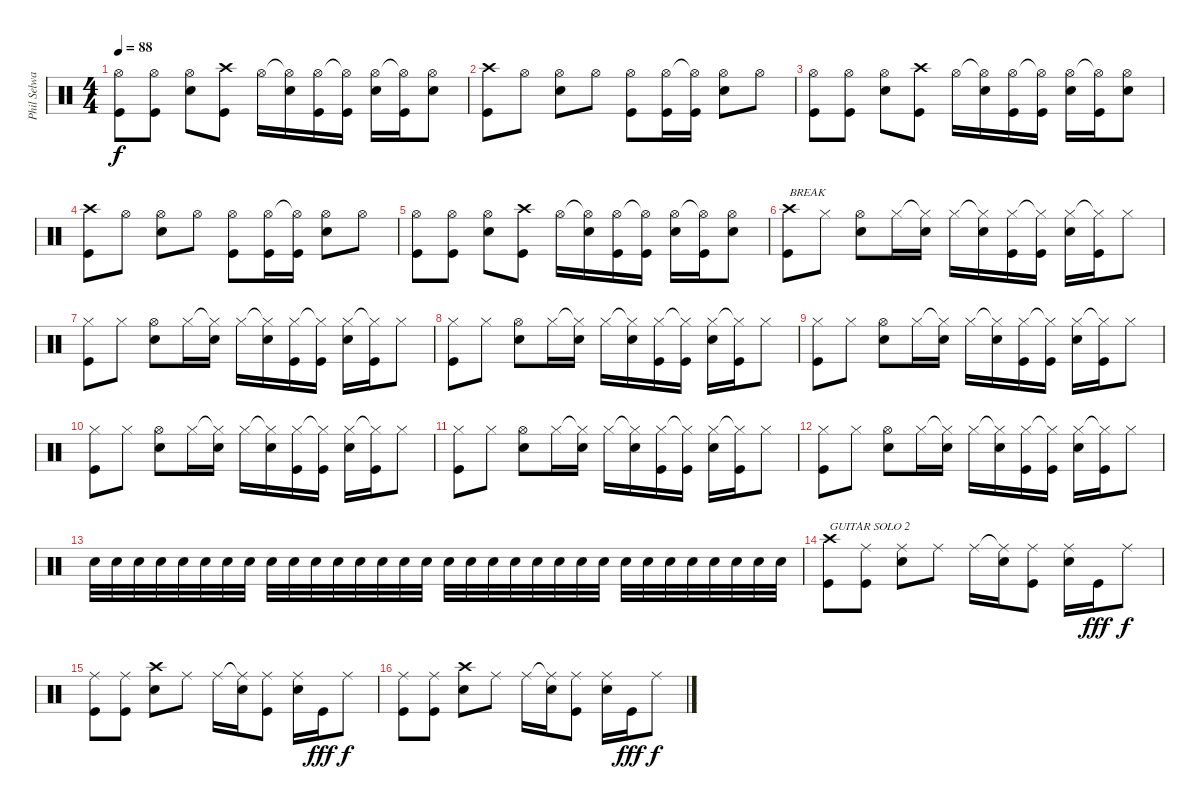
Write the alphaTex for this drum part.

\track ("Phil Selway" "Phil Selwa") {instrument percussion}
\staff {score}
\articulation defaults
\ts (4 4)
\tempo 88
\clef neutral
\ks c
("Hi-Hat (open)" "Kick (hit)").8{dy f} ("Hi-Hat (open)" "Kick (hit)").8 ("Hi-Hat (open)" "Snare (hit) 2").8 ("Crash high (hit)" "Kick (hit)").8 "Hi-Hat (open)".16 ("Hi-Hat (open)"{t} "Snare (hit) 2").16 ("Hi-Hat (open)" "Kick (hit)").16 ("Hi-Hat (open)"{t} "Kick (hit)").16 ("Hi-Hat (open)" "Snare (hit) 2").16 ("Hi-Hat (open)"{t} "Kick (hit)").16 ("Hi-Hat (open)" "Snare (hit) 2").8 |
("Crash high (hit)" "Kick (hit)").8 "Hi-Hat (open)".8 ("Hi-Hat (open)" "Snare (hit) 2").8 "Hi-Hat (open)".8 ("Hi-Hat (open)" "Kick (hit)").8 ("Hi-Hat (open)" "Kick (hit)").16 ("Hi-Hat (open)"{t} "Kick (hit)").16 ("Hi-Hat (open)" "Snare (hit) 2").8 "Hi-Hat (open)".8 |
("Hi-Hat (open)" "Kick (hit)").8 ("Hi-Hat (open)" "Kick (hit)").8 ("Hi-Hat (open)" "Snare (hit) 2").8 ("Crash high (hit)" "Kick (hit)").8 "Hi-Hat (open)".16 ("Hi-Hat (open)"{t} "Snare (hit) 2").16 ("Hi-Hat (open)" "Kick (hit)").16 ("Hi-Hat (open)"{t} "Kick (hit)").16 ("Hi-Hat (open)" "Snare (hit) 2").16 ("Hi-Hat (open)"{t} "Kick (hit)").16 ("Hi-Hat (open)" "Snare (hit) 2").8 |
("Crash high (hit)" "Kick (hit)").8 "Hi-Hat (open)".8 ("Hi-Hat (open)" "Snare (hit) 2").8 "Hi-Hat (open)".8 ("Hi-Hat (open)" "Kick (hit)").8 ("Hi-Hat (open)" "Kick (hit)").16 ("Hi-Hat (open)"{t} "Kick (hit)").16 ("Hi-Hat (open)" "Snare (hit) 2").8 "Hi-Hat (open)".8 |
("Hi-Hat (open)" "Kick (hit)").8 ("Hi-Hat (open)" "Kick (hit)").8 ("Hi-Hat (open)" "Snare (hit) 2").8 ("Crash high (hit)" "Kick (hit)").8 "Hi-Hat (open)".16 ("Hi-Hat (open)"{t} "Snare (hit) 2").16 ("Hi-Hat (open)" "Kick (hit)").16 ("Hi-Hat (open)"{t} "Kick (hit)").16 ("Hi-Hat (open)" "Snare (hit) 2").16 ("Hi-Hat (open)"{t} "Kick (hit)").16 ("Hi-Hat (open)" "Snare (hit) 2").8 |
("Crash high (hit)" "Kick (hit)").8{txt "BREAK"} "Hi-Hat (closed)".8 ("Hi-Hat (open)" "Snare (hit) 2").8 "Hi-Hat (closed)".16 ("Hi-Hat (closed)"{t} "Snare (hit) 2").16 "Hi-Hat (closed)".16 ("Hi-Hat (closed)"{t} "Snare (hit) 2").16 ("Hi-Hat (closed)" "Kick (hit)").16 ("Hi-Hat (closed)"{t} "Kick (hit)").16 ("Hi-Hat (closed)" "Snare (hit) 2").16 ("Hi-Hat (closed)"{t} "Kick (hit)").16 "Hi-Hat (closed)".8 |
("Hi-Hat (closed)" "Kick (hit)").8 "Hi-Hat (closed)".8 ("Hi-Hat (open)" "Snare (hit) 2").8 "Hi-Hat (closed)".16 ("Hi-Hat (closed)"{t} "Snare (hit) 2").16 "Hi-Hat (closed)".16 ("Hi-Hat (closed)"{t} "Snare (hit) 2").16 ("Hi-Hat (closed)" "Kick (hit)").16 ("Hi-Hat (closed)"{t} "Kick (hit)").16 ("Hi-Hat (closed)" "Snare (hit) 2").16 ("Hi-Hat (closed)"{t} "Kick (hit)").16 "Hi-Hat (closed)".8 |
("Hi-Hat (closed)" "Kick (hit)").8 "Hi-Hat (closed)".8 ("Hi-Hat (open)" "Snare (hit) 2").8 "Hi-Hat (closed)".16 ("Hi-Hat (closed)"{t} "Snare (hit) 2").16 "Hi-Hat (closed)".16 ("Hi-Hat (closed)"{t} "Snare (hit) 2").16 ("Hi-Hat (closed)" "Kick (hit)").16 ("Hi-Hat (closed)"{t} "Kick (hit)").16 ("Hi-Hat (closed)" "Snare (hit) 2").16 ("Hi-Hat (closed)"{t} "Kick (hit)").16 "Hi-Hat (closed)".8 |
("Hi-Hat (closed)" "Kick (hit)").8 "Hi-Hat (closed)".8 ("Hi-Hat (open)" "Snare (hit) 2").8 "Hi-Hat (closed)".16 ("Hi-Hat (closed)"{t} "Snare (hit) 2").16 "Hi-Hat (closed)".16 ("Hi-Hat (closed)"{t} "Snare (hit) 2").16 ("Hi-Hat (closed)" "Kick (hit)").16 ("Hi-Hat (closed)"{t} "Kick (hit)").16 ("Hi-Hat (closed)" "Snare (hit) 2").16 ("Hi-Hat (closed)"{t} "Kick (hit)").16 "Hi-Hat (closed)".8 |
("Hi-Hat (closed)" "Kick (hit)").8 "Hi-Hat (closed)".8 ("Hi-Hat (open)" "Snare (hit) 2").8 "Hi-Hat (closed)".16 ("Hi-Hat (closed)"{t} "Snare (hit) 2").16 "Hi-Hat (closed)".16 ("Hi-Hat (closed)"{t} "Snare (hit) 2").16 ("Hi-Hat (closed)" "Kick (hit)").16 ("Hi-Hat (closed)"{t} "Kick (hit)").16 ("Hi-Hat (closed)" "Snare (hit) 2").16 ("Hi-Hat (closed)"{t} "Kick (hit)").16 "Hi-Hat (closed)".8 |
("Hi-Hat (closed)" "Kick (hit)").8 "Hi-Hat (closed)".8 ("Hi-Hat (open)" "Snare (hit) 2").8 "Hi-Hat (closed)".16 ("Hi-Hat (closed)"{t} "Snare (hit) 2").16 "Hi-Hat (closed)".16 ("Hi-Hat (closed)"{t} "Snare (hit) 2").16 ("Hi-Hat (closed)" "Kick (hit)").16 ("Hi-Hat (closed)"{t} "Kick (hit)").16 ("Hi-Hat (closed)" "Snare (hit) 2").16 ("Hi-Hat (closed)"{t} "Kick (hit)").16 "Hi-Hat (closed)".8 |
("Hi-Hat (closed)" "Kick (hit)").8 "Hi-Hat (closed)".8 ("Hi-Hat (open)" "Snare (hit) 2").8 "Hi-Hat (closed)".16 ("Hi-Hat (closed)"{t} "Snare (hit) 2").16 "Hi-Hat (closed)".16 ("Hi-Hat (closed)"{t} "Snare (hit) 2").16 ("Hi-Hat (closed)" "Kick (hit)").16 ("Hi-Hat (closed)"{t} "Kick (hit)").16 ("Hi-Hat (closed)" "Snare (hit) 2").16 ("Hi-Hat (closed)"{t} "Kick (hit)").16 "Hi-Hat (closed)".8 |
"Snare (hit) 2".32{volume 6} "Snare (hit) 2".32 "Snare (hit) 2".32 "Snare (hit) 2".32 "Snare (hit) 2".32 "Snare (hit) 2".32 "Snare (hit) 2".32 "Snare (hit) 2".32 "Snare (hit) 2".32 "Snare (hit) 2".32 "Snare (hit) 2".32 "Snare (hit) 2".32 "Snare (hit) 2".32 "Snare (hit) 2".32 "Snare (hit) 2".32 "Snare (hit) 2".32 "Snare (hit) 2".32 "Snare (hit) 2".32 "Snare (hit) 2".32 "Snare (hit) 2".32 "Snare (hit) 2".32 "Snare (hit) 2".32 "Snare (hit) 2".32 "Snare (hit) 2".32 "Snare (hit) 2".32 "Snare (hit) 2".32 "Snare (hit) 2".32 "Snare (hit) 2".32 "Snare (hit) 2".32 "Snare (hit) 2".32 "Snare (hit) 2".32 "Snare (hit) 2".32 |
("Crash high (hit)" "Kick (hit)").8{txt "GUITAR SOLO 2" volume 8} ("Ride (middle)" "Kick (hit)").8 ("Ride (middle)" "Snare (hit) 2").8 "Ride (middle)".8 "Ride (middle)".16 ("Ride (middle)"{t} "Snare (hit) 2").16 ("Ride (middle)" "Kick (hit)").8 ("Ride (middle)" "Snare (hit) 2").16 "Kick (hit)".16{dy fff} "Ride (middle)".8{dy f} |
("Ride (middle)" "Kick (hit)").8 ("Ride (middle)" "Kick (hit)").8 ("Crash high (hit)" "Snare (hit) 2").8 "Ride (middle)".8 "Ride (middle)".16 ("Ride (middle)"{t} "Snare (hit) 2").16 ("Ride (middle)" "Kick (hit)").8 ("Ride (middle)" "Snare (hit) 2").16 "Kick (hit)".16{dy fff} "Ride (middle)".8{dy f} |
("Ride (middle)" "Kick (hit)").8 ("Ride (middle)" "Kick (hit)").8 ("Crash high (hit)" "Snare (hit) 2").8 "Ride (middle)".8 "Ride (middle)".16 ("Ride (middle)"{t} "Snare (hit) 2").16 ("Ride (middle)" "Kick (hit)").8 ("Ride (middle)" "Snare (hit) 2").16 "Kick (hit)".16{dy fff} "Ride (middle)".8{dy f}
